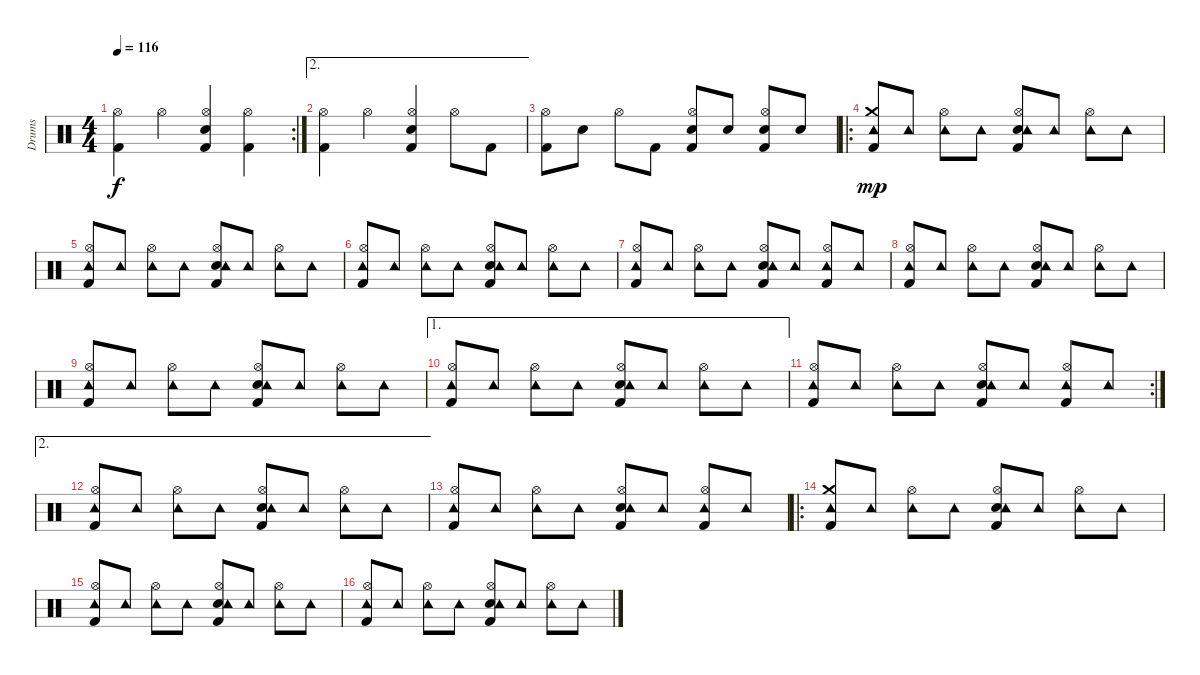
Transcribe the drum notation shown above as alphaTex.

\track ("Drums" "Drums") {instrument percussion}
\staff {score}
\articulation defaults
\rc 2
\ts (4 4)
\tempo 116
\clef neutral
\ks c
("Kick (hit) 2" "Hi-Hat (open)").4{dy f} "Hi-Hat (open)".4 ("Kick (hit) 2" "Hi-Hat (open)" "Snare (hit) 2").4 ("Kick (hit) 2" "Hi-Hat (open)").4 |
\ae 2
("Kick (hit) 2" "Hi-Hat (open)").4 "Hi-Hat (open)".4 ("Kick (hit) 2" "Hi-Hat (open)" "Snare (hit) 2").4 "Hi-Hat (open)".8 "Kick (hit) 2".8 |
("Kick (hit) 2" "Hi-Hat (open)").8 "Snare (hit) 2".8 "Hi-Hat (open)".8 "Kick (hit) 2".8 ("Kick (hit) 2" "Hi-Hat (open)" "Snare (hit) 2").8 "Snare (hit) 2".8 ("Kick (hit) 2" "Hi-Hat (open)" "Snare (hit) 2").8 "Snare (hit) 2".8 |
\ro
("Kick (hit) 2" "Crash medium (hit)" "Tambourine (hit)").8{dy mp} "Tambourine (hit)".8 ("Hi-Hat (open)" "Tambourine (hit)").8 "Tambourine (hit)".8 ("Kick (hit) 2" "Hi-Hat (open)" "Snare (hit) 2" "Tambourine (hit)").8 "Tambourine (hit)".8 ("Hi-Hat (open)" "Tambourine (hit)").8 "Tambourine (hit)".8 |
("Kick (hit) 2" "Hi-Hat (open)" "Tambourine (hit)").8 "Tambourine (hit)".8 ("Hi-Hat (open)" "Tambourine (hit)").8 "Tambourine (hit)".8 ("Kick (hit) 2" "Hi-Hat (open)" "Snare (hit) 2" "Tambourine (hit)").8 "Tambourine (hit)".8 ("Hi-Hat (open)" "Tambourine (hit)").8 "Tambourine (hit)".8 |
("Kick (hit) 2" "Hi-Hat (open)" "Tambourine (hit)").8 "Tambourine (hit)".8 ("Hi-Hat (open)" "Tambourine (hit)").8 "Tambourine (hit)".8 ("Kick (hit) 2" "Hi-Hat (open)" "Snare (hit) 2" "Tambourine (hit)").8 "Tambourine (hit)".8 ("Hi-Hat (open)" "Tambourine (hit)").8 "Tambourine (hit)".8 |
("Kick (hit) 2" "Hi-Hat (open)" "Tambourine (hit)").8 "Tambourine (hit)".8 ("Hi-Hat (open)" "Tambourine (hit)").8 "Tambourine (hit)".8 ("Kick (hit) 2" "Hi-Hat (open)" "Snare (hit) 2" "Tambourine (hit)").8 "Tambourine (hit)".8 ("Kick (hit) 2" "Hi-Hat (open)" "Tambourine (hit)").8 "Tambourine (hit)".8 |
("Kick (hit) 2" "Hi-Hat (open)" "Tambourine (hit)").8 "Tambourine (hit)".8 ("Hi-Hat (open)" "Tambourine (hit)").8 "Tambourine (hit)".8 ("Kick (hit) 2" "Hi-Hat (open)" "Snare (hit) 2" "Tambourine (hit)").8 "Tambourine (hit)".8 ("Hi-Hat (open)" "Tambourine (hit)").8 "Tambourine (hit)".8 |
("Kick (hit) 2" "Hi-Hat (open)" "Tambourine (hit)").8 "Tambourine (hit)".8 ("Hi-Hat (open)" "Tambourine (hit)").8 "Tambourine (hit)".8 ("Kick (hit) 2" "Hi-Hat (open)" "Snare (hit) 2" "Tambourine (hit)").8 "Tambourine (hit)".8 ("Hi-Hat (open)" "Tambourine (hit)").8 "Tambourine (hit)".8 |
\ae 1
("Kick (hit) 2" "Hi-Hat (open)" "Tambourine (hit)").8 "Tambourine (hit)".8 ("Hi-Hat (open)" "Tambourine (hit)").8 "Tambourine (hit)".8 ("Kick (hit) 2" "Hi-Hat (open)" "Snare (hit) 2" "Tambourine (hit)").8 "Tambourine (hit)".8 ("Hi-Hat (open)" "Tambourine (hit)").8 "Tambourine (hit)".8 |
\rc 2
("Kick (hit) 2" "Hi-Hat (open)" "Tambourine (hit)").8 "Tambourine (hit)".8 ("Hi-Hat (open)" "Tambourine (hit)").8 "Tambourine (hit)".8 ("Kick (hit) 2" "Hi-Hat (open)" "Snare (hit) 2" "Tambourine (hit)").8 "Tambourine (hit)".8 ("Kick (hit) 2" "Hi-Hat (open)" "Tambourine (hit)").8 "Tambourine (hit)".8 |
\ae 2
("Kick (hit) 2" "Hi-Hat (open)" "Tambourine (hit)").8 "Tambourine (hit)".8 ("Hi-Hat (open)" "Tambourine (hit)").8 "Tambourine (hit)".8 ("Kick (hit) 2" "Hi-Hat (open)" "Snare (hit) 2" "Tambourine (hit)").8 "Tambourine (hit)".8 ("Hi-Hat (open)" "Tambourine (hit)").8 "Tambourine (hit)".8 |
("Kick (hit) 2" "Hi-Hat (open)" "Tambourine (hit)").8 "Tambourine (hit)".8 ("Hi-Hat (open)" "Tambourine (hit)").8 "Tambourine (hit)".8 ("Kick (hit) 2" "Hi-Hat (open)" "Snare (hit) 2" "Tambourine (hit)").8 "Tambourine (hit)".8 ("Kick (hit) 2" "Hi-Hat (open)" "Tambourine (hit)").8 "Tambourine (hit)".8 |
\ro
("Kick (hit) 2" "Crash medium (hit)" "Tambourine (hit)").8 "Tambourine (hit)".8 ("Hi-Hat (open)" "Tambourine (hit)").8 "Tambourine (hit)".8 ("Kick (hit) 2" "Hi-Hat (open)" "Snare (hit) 2" "Tambourine (hit)").8 "Tambourine (hit)".8 ("Hi-Hat (open)" "Tambourine (hit)").8 "Tambourine (hit)".8 |
("Kick (hit) 2" "Hi-Hat (open)" "Tambourine (hit)").8 "Tambourine (hit)".8 ("Hi-Hat (open)" "Tambourine (hit)").8 "Tambourine (hit)".8 ("Kick (hit) 2" "Hi-Hat (open)" "Snare (hit) 2" "Tambourine (hit)").8 "Tambourine (hit)".8 ("Hi-Hat (open)" "Tambourine (hit)").8 "Tambourine (hit)".8 |
("Kick (hit) 2" "Hi-Hat (open)" "Tambourine (hit)").8 "Tambourine (hit)".8 ("Hi-Hat (open)" "Tambourine (hit)").8 "Tambourine (hit)".8 ("Kick (hit) 2" "Hi-Hat (open)" "Snare (hit) 2" "Tambourine (hit)").8 "Tambourine (hit)".8 ("Hi-Hat (open)" "Tambourine (hit)").8 "Tambourine (hit)".8
